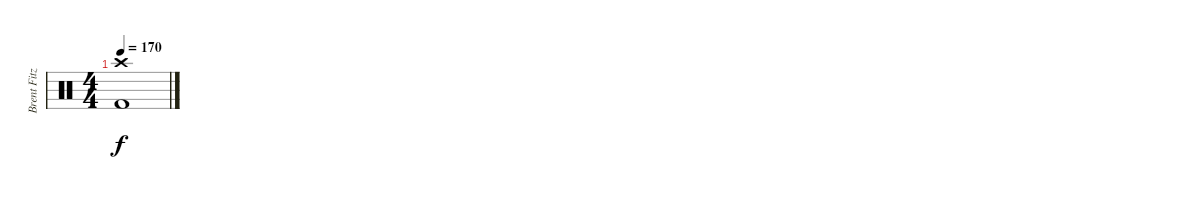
\track ("Brent Fitz" "Brent Fitz") {instrument percussion}
\staff {score}
\articulation defaults
\ts (4 4)
\tempo 170
\clef neutral
\ks c
("Crash high (hit)" "Kick (hit) 2").1{dy f}
